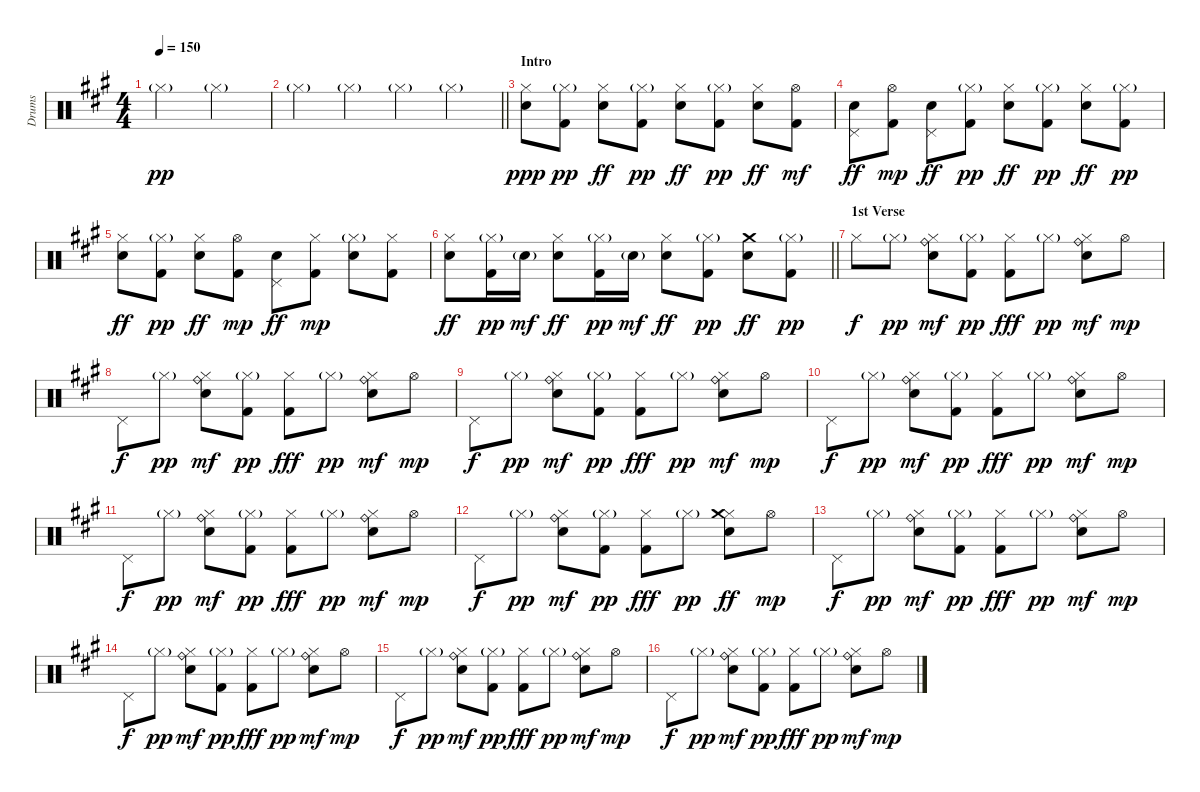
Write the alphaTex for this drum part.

\track ("Drums" "Drums") {instrument percussion}
\staff {score}
\articulation defaults
\ts (4 4)
\tempo 150
\clef neutral
\ks a "Hi-Hat (closed)"{g}.2{dy pp} "Hi-Hat (closed)"{g}.2
|
\barLineRight lightlight "Hi-Hat (closed)"{g}.4 "Hi-Hat (closed)"{g}.4 "Hi-Hat (closed)"{g}.4 "Hi-Hat (closed)"{g}.4
|
\section ("" "Intro")
("Electric Snare (hit)" "Hi-Hat (closed)").8{dy ppp} ("Kick (hit) 2" "Hi-Hat (closed)"{g}).8{dy pp} ("Electric Snare (hit)" "Hi-Hat (closed)").8{dy ff} ("Kick (hit) 2" "Hi-Hat (closed)"{g}).8{dy pp} ("Electric Snare (hit)" "Hi-Hat (closed)").8{dy ff} ("Kick (hit) 2" "Hi-Hat (closed)"{g}).8{dy pp} ("Electric Snare (hit)" "Hi-Hat (closed)").8{dy ff} ("Kick (hit) 2" "Hi-Hat (open)").8{dy mf} |
("Electric Snare (hit)" "Pedal Hi-Hat (hit)").8{dy ff} ("Kick (hit) 2" "Hi-Hat (open)").8{dy mp} ("Electric Snare (hit)" "Pedal Hi-Hat (hit)").8{dy ff} ("Kick (hit) 2" "Hi-Hat (closed)"{g}).8{dy pp} ("Electric Snare (hit)" "Hi-Hat (closed)").8{dy ff} ("Kick (hit) 2" "Hi-Hat (closed)"{g}).8{dy pp} ("Electric Snare (hit)" "Hi-Hat (closed)").8{dy ff} ("Kick (hit) 2" "Hi-Hat (closed)"{g}).8{dy pp} |
("Electric Snare (hit)" "Hi-Hat (closed)").8{dy ff} ("Kick (hit) 2" "Hi-Hat (closed)"{g}).8{dy pp} ("Electric Snare (hit)" "Hi-Hat (closed)").8{dy ff} ("Kick (hit) 2" "Hi-Hat (open)").8{dy mp} ("Electric Snare (hit)" "Pedal Hi-Hat (hit)").8{dy ff} ("Kick (hit) 2" "Hi-Hat (closed)").8{dy mp} ("Electric Snare (hit)" "Hi-Hat (closed)"{g}).8 ("Kick (hit) 2" "Hi-Hat (closed)").8 |
\barLineRight lightlight
("Electric Snare (hit)" "Hi-Hat (closed)").8{dy ff} ("Kick (hit) 2" "Hi-Hat (closed)"{g}).16{dy pp} "Electric Snare (hit)"{g}.16{dy mf} ("Electric Snare (hit)" "Hi-Hat (closed)").8{dy ff} ("Kick (hit) 2" "Hi-Hat (closed)"{g}).16{dy pp} "Electric Snare (hit)"{g}.16{dy mf} ("Electric Snare (hit)" "Hi-Hat (closed)").8{dy ff} ("Kick (hit) 2" "Hi-Hat (closed)"{g}).8{dy pp} ("Electric Snare (hit)" "Crash medium (hit)").8{dy ff} ("Kick (hit) 2" "Hi-Hat (closed)"{g}).8{dy pp} |
\section ("" "1st Verse")
"Hi-Hat (closed)".8{dy f} "Hi-Hat (closed)"{g}.8{dy pp} ("Electric Snare (hit)" "Hi-Hat (closed)" "Ride (bell)").8{dy mf} ("Kick (hit) 2" "Hi-Hat (closed)"{g}).8{dy pp} ("Kick (hit) 2" "Hi-Hat (closed)").8{dy fff} "Hi-Hat (closed)"{g}.8{dy pp} ("Electric Snare (hit)" "Hi-Hat (closed)" "Ride (bell)").8{dy mf} "Hi-Hat (open)".8{dy mp} |
"Pedal Hi-Hat (hit)".8{dy f} "Hi-Hat (closed)"{g}.8{dy pp} ("Electric Snare (hit)" "Hi-Hat (closed)" "Ride (bell)").8{dy mf} ("Kick (hit) 2" "Hi-Hat (closed)"{g}).8{dy pp} ("Kick (hit) 2" "Hi-Hat (closed)").8{dy fff} "Hi-Hat (closed)"{g}.8{dy pp} ("Electric Snare (hit)" "Hi-Hat (closed)" "Ride (bell)").8{dy mf} "Hi-Hat (open)".8{dy mp} |
"Pedal Hi-Hat (hit)".8{dy f} "Hi-Hat (closed)"{g}.8{dy pp} ("Electric Snare (hit)" "Hi-Hat (closed)" "Ride (bell)").8{dy mf} ("Kick (hit) 2" "Hi-Hat (closed)"{g}).8{dy pp} ("Kick (hit) 2" "Hi-Hat (closed)").8{dy fff} "Hi-Hat (closed)"{g}.8{dy pp} ("Electric Snare (hit)" "Hi-Hat (closed)" "Ride (bell)").8{dy mf} "Hi-Hat (open)".8{dy mp} |
"Pedal Hi-Hat (hit)".8{dy f} "Hi-Hat (closed)"{g}.8{dy pp} ("Electric Snare (hit)" "Hi-Hat (closed)" "Ride (bell)").8{dy mf} ("Kick (hit) 2" "Hi-Hat (closed)"{g}).8{dy pp} ("Kick (hit) 2" "Hi-Hat (closed)").8{dy fff} "Hi-Hat (closed)"{g}.8{dy pp} ("Electric Snare (hit)" "Hi-Hat (closed)" "Ride (bell)").8{dy mf} "Hi-Hat (open)".8{dy mp} |
"Pedal Hi-Hat (hit)".8{dy f} "Hi-Hat (closed)"{g}.8{dy pp} ("Electric Snare (hit)" "Hi-Hat (closed)" "Ride (bell)").8{dy mf} ("Kick (hit) 2" "Hi-Hat (closed)"{g}).8{dy pp} ("Kick (hit) 2" "Hi-Hat (closed)").8{dy fff} "Hi-Hat (closed)"{g}.8{dy pp} ("Electric Snare (hit)" "Hi-Hat (closed)" "Ride (bell)").8{dy mf} "Hi-Hat (open)".8{dy mp} |
"Pedal Hi-Hat (hit)".8{dy f} "Hi-Hat (closed)"{g}.8{dy pp} ("Electric Snare (hit)" "Hi-Hat (closed)" "Ride (bell)").8{dy mf} ("Kick (hit) 2" "Hi-Hat (closed)"{g}).8{dy pp} ("Kick (hit) 2" "Hi-Hat (closed)").8{dy fff} "Hi-Hat (closed)"{g}.8{dy pp} ("Electric Snare (hit)" "Hi-Hat (closed)" "Crash medium (hit)").8{dy ff} "Hi-Hat (open)".8{dy mp} |
"Pedal Hi-Hat (hit)".8{dy f} "Hi-Hat (closed)"{g}.8{dy pp} ("Electric Snare (hit)" "Hi-Hat (closed)" "Ride (bell)").8{dy mf} ("Kick (hit) 2" "Hi-Hat (closed)"{g}).8{dy pp} ("Kick (hit) 2" "Hi-Hat (closed)").8{dy fff} "Hi-Hat (closed)"{g}.8{dy pp} ("Electric Snare (hit)" "Hi-Hat (closed)" "Ride (bell)").8{dy mf} "Hi-Hat (open)".8{dy mp} |
"Pedal Hi-Hat (hit)".8{dy f} "Hi-Hat (closed)"{g}.8{dy pp} ("Electric Snare (hit)" "Hi-Hat (closed)" "Ride (bell)").8{dy mf} ("Kick (hit) 2" "Hi-Hat (closed)"{g}).8{dy pp} ("Kick (hit) 2" "Hi-Hat (closed)").8{dy fff} "Hi-Hat (closed)"{g}.8{dy pp} ("Electric Snare (hit)" "Hi-Hat (closed)" "Ride (bell)").8{dy mf} "Hi-Hat (open)".8{dy mp} |
"Pedal Hi-Hat (hit)".8{dy f} "Hi-Hat (closed)"{g}.8{dy pp} ("Electric Snare (hit)" "Hi-Hat (closed)" "Ride (bell)").8{dy mf} ("Kick (hit) 2" "Hi-Hat (closed)"{g}).8{dy pp} ("Kick (hit) 2" "Hi-Hat (closed)").8{dy fff} "Hi-Hat (closed)"{g}.8{dy pp} ("Electric Snare (hit)" "Hi-Hat (closed)" "Ride (bell)").8{dy mf} "Hi-Hat (open)".8{dy mp} |
"Pedal Hi-Hat (hit)".8{dy f} "Hi-Hat (closed)"{g}.8{dy pp} ("Electric Snare (hit)" "Hi-Hat (closed)" "Ride (bell)").8{dy mf} ("Kick (hit) 2" "Hi-Hat (closed)"{g}).8{dy pp} ("Kick (hit) 2" "Hi-Hat (closed)").8{dy fff} "Hi-Hat (closed)"{g}.8{dy pp} ("Electric Snare (hit)" "Hi-Hat (closed)" "Ride (bell)").8{dy mf} "Hi-Hat (open)".8{dy mp}
